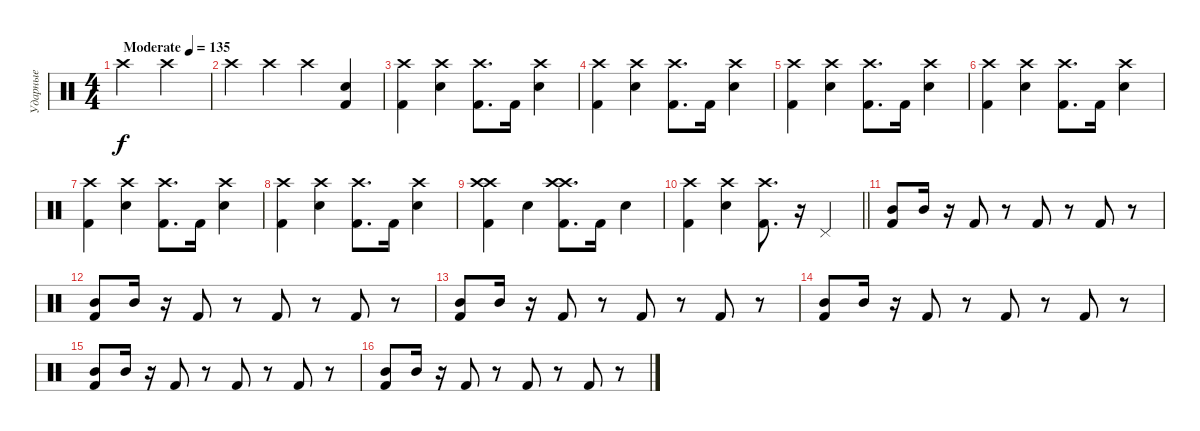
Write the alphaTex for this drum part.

\track ("Ударные" "Ударные") {instrument percussion}
\staff {score}
\articulation defaults
\ts (4 4)
\tempo (135 "Moderate")
\clef neutral
\ks c "Crash high (hit)".2{dy f} "Crash high (hit)".2
|
"Crash high (hit)".4 "Crash high (hit)".4 "Crash high (hit)".4 ("Electric Snare (hit)" "Kick (hit) 2").4 |
("Crash high (hit)" "Kick (hit) 2").4 ("Crash high (hit)" "Electric Snare (hit)").4 ("Crash high (hit)" "Kick (hit) 2").8{d} "Kick (hit) 2".16 ("Crash high (hit)" "Electric Snare (hit)").4 |
("Crash high (hit)" "Kick (hit) 2").4 ("Crash high (hit)" "Electric Snare (hit)").4 ("Crash high (hit)" "Kick (hit) 2").8{d} "Kick (hit) 2".16 ("Crash high (hit)" "Electric Snare (hit)").4 |
("Crash high (hit)" "Kick (hit) 2").4 ("Crash high (hit)" "Electric Snare (hit)").4 ("Crash high (hit)" "Kick (hit) 2").8{d} "Kick (hit) 2".16 ("Crash high (hit)" "Electric Snare (hit)").4 |
("Crash high (hit)" "Kick (hit) 2").4 ("Crash high (hit)" "Electric Snare (hit)").4 ("Crash high (hit)" "Kick (hit) 2").8{d} "Kick (hit) 2".16 ("Crash high (hit)" "Electric Snare (hit)").4 |
("Crash high (hit)" "Kick (hit) 2").4 ("Crash high (hit)" "Electric Snare (hit)").4 ("Crash high (hit)" "Kick (hit) 2").8{d} "Kick (hit) 2".16 ("Crash high (hit)" "Electric Snare (hit)").4 |
("Crash high (hit)" "Kick (hit) 2").4 ("Crash high (hit)" "Electric Snare (hit)").4 ("Crash high (hit)" "Kick (hit) 2").8{d} "Kick (hit) 2".16 ("Crash high (hit)" "Electric Snare (hit)").4 |
("Crash high (hit)" "Crash high (hit)" "Kick (hit) 2").4 "Electric Snare (hit)".4 ("Crash high (hit)" "Crash high (hit)" "Kick (hit) 2").8{d} "Kick (hit) 2".16 "Electric Snare (hit)".4 |
\barLineRight lightlight
("Crash high (hit)" "Kick (hit) 2").4 ("Crash high (hit)" "Electric Snare (hit)").4 ("Crash high (hit)" "Kick (hit) 2").8{d} r.16 "Pedal Hi-Hat (hit)".4 |
("Kick (hit) 2" "Mid Tom (hit)").8 "Mid Tom (hit)".16 r.16 "Kick (hit) 2".8 r.8 "Kick (hit) 2".8 r.8 "Kick (hit) 2".8 r.8 |
("Kick (hit) 2" "Mid Tom (hit)").8 "Mid Tom (hit)".16 r.16 "Kick (hit) 2".8 r.8 "Kick (hit) 2".8 r.8 "Kick (hit) 2".8 r.8 |
("Kick (hit) 2" "Mid Tom (hit)").8 "Mid Tom (hit)".16 r.16 "Kick (hit) 2".8 r.8 "Kick (hit) 2".8 r.8 "Kick (hit) 2".8 r.8 |
("Kick (hit) 2" "Mid Tom (hit)").8 "Mid Tom (hit)".16 r.16 "Kick (hit) 2".8 r.8 "Kick (hit) 2".8 r.8 "Kick (hit) 2".8 r.8 |
("Kick (hit) 2" "Mid Tom (hit)").8 "Mid Tom (hit)".16 r.16 "Kick (hit) 2".8 r.8 "Kick (hit) 2".8 r.8 "Kick (hit) 2".8 r.8 |
("Kick (hit) 2" "Mid Tom (hit)").8 "Mid Tom (hit)".16 r.16 "Kick (hit) 2".8 r.8 "Kick (hit) 2".8 r.8 "Kick (hit) 2".8 r.8
